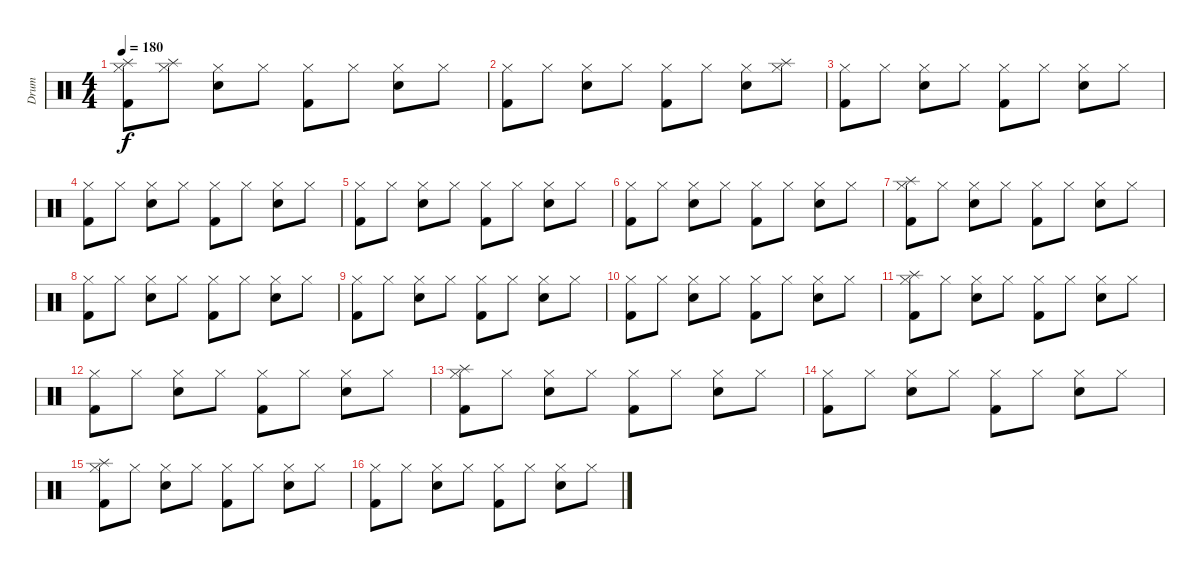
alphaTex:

\track ("Drum" "Drum") {instrument percussion}
\staff {score}
\articulation defaults
\ts (4 4)
\tempo 180
\clef neutral
\ks c
("Hi-Hat (closed)" "Kick (hit) 2" "Splash (hit)").8{dy f} ("Hi-Hat (closed)" "Splash (hit)").8 ("Hi-Hat (closed)" "Snare (hit) 2").8 "Hi-Hat (closed)".8 ("Hi-Hat (closed)" "Kick (hit) 2").8 "Hi-Hat (closed)".8 ("Hi-Hat (closed)" "Snare (hit) 2").8 "Hi-Hat (closed)".8 |
("Hi-Hat (closed)" "Kick (hit) 2").8 "Hi-Hat (closed)".8 ("Hi-Hat (closed)" "Snare (hit) 2").8 "Hi-Hat (closed)".8 ("Hi-Hat (closed)" "Kick (hit) 2").8 "Hi-Hat (closed)".8 ("Hi-Hat (closed)" "Snare (hit) 2").8 ("Hi-Hat (closed)" "Splash (hit)").8 |
("Hi-Hat (closed)" "Kick (hit) 2").8 "Hi-Hat (closed)".8 ("Hi-Hat (closed)" "Snare (hit) 2").8 "Hi-Hat (closed)".8 ("Hi-Hat (closed)" "Kick (hit) 2").8 "Hi-Hat (closed)".8 ("Hi-Hat (closed)" "Snare (hit) 2").8 "Hi-Hat (closed)".8 |
("Hi-Hat (closed)" "Kick (hit) 2").8 "Hi-Hat (closed)".8 ("Hi-Hat (closed)" "Snare (hit) 2").8 "Hi-Hat (closed)".8 ("Hi-Hat (closed)" "Kick (hit) 2").8 "Hi-Hat (closed)".8 ("Hi-Hat (closed)" "Snare (hit) 2").8 "Hi-Hat (closed)".8 |
("Hi-Hat (closed)" "Kick (hit) 2").8 "Hi-Hat (closed)".8 ("Hi-Hat (closed)" "Snare (hit) 2").8 "Hi-Hat (closed)".8 ("Hi-Hat (closed)" "Kick (hit) 2").8 "Hi-Hat (closed)".8 ("Hi-Hat (closed)" "Snare (hit) 2").8 "Hi-Hat (closed)".8 |
("Hi-Hat (closed)" "Kick (hit) 2").8 "Hi-Hat (closed)".8 ("Hi-Hat (closed)" "Snare (hit) 2").8 "Hi-Hat (closed)".8 ("Hi-Hat (closed)" "Kick (hit) 2").8 "Hi-Hat (closed)".8 ("Hi-Hat (closed)" "Snare (hit) 2").8 "Hi-Hat (closed)".8 |
("Hi-Hat (closed)" "Kick (hit) 2" "Splash (hit)").8 "Hi-Hat (closed)".8 ("Hi-Hat (closed)" "Snare (hit) 2").8 "Hi-Hat (closed)".8 ("Hi-Hat (closed)" "Kick (hit) 2").8 "Hi-Hat (closed)".8 ("Hi-Hat (closed)" "Snare (hit) 2").8 "Hi-Hat (closed)".8 |
("Hi-Hat (closed)" "Kick (hit) 2").8 "Hi-Hat (closed)".8 ("Hi-Hat (closed)" "Snare (hit) 2").8 "Hi-Hat (closed)".8 ("Hi-Hat (closed)" "Kick (hit) 2").8 "Hi-Hat (closed)".8 ("Hi-Hat (closed)" "Snare (hit) 2").8 "Hi-Hat (closed)".8 |
("Hi-Hat (closed)" "Kick (hit) 2").8 "Hi-Hat (closed)".8 ("Hi-Hat (closed)" "Snare (hit) 2").8 "Hi-Hat (closed)".8 ("Hi-Hat (closed)" "Kick (hit) 2").8 "Hi-Hat (closed)".8 ("Hi-Hat (closed)" "Snare (hit) 2").8 "Hi-Hat (closed)".8 |
("Hi-Hat (closed)" "Kick (hit) 2").8 "Hi-Hat (closed)".8 ("Hi-Hat (closed)" "Snare (hit) 2").8 "Hi-Hat (closed)".8 ("Hi-Hat (closed)" "Kick (hit) 2").8 "Hi-Hat (closed)".8 ("Hi-Hat (closed)" "Snare (hit) 2").8 "Hi-Hat (closed)".8 |
("Hi-Hat (closed)" "Kick (hit) 2" "Splash (hit)").8 "Hi-Hat (closed)".8 ("Hi-Hat (closed)" "Snare (hit) 2").8 "Hi-Hat (closed)".8 ("Hi-Hat (closed)" "Kick (hit) 2").8 "Hi-Hat (closed)".8 ("Hi-Hat (closed)" "Snare (hit) 2").8 "Hi-Hat (closed)".8 |
("Hi-Hat (closed)" "Kick (hit) 2").8 "Hi-Hat (closed)".8 ("Hi-Hat (closed)" "Snare (hit) 2").8 "Hi-Hat (closed)".8 ("Hi-Hat (closed)" "Kick (hit) 2").8 "Hi-Hat (closed)".8 ("Hi-Hat (closed)" "Snare (hit) 2").8 "Hi-Hat (closed)".8 |
("Hi-Hat (closed)" "Kick (hit) 2" "Splash (hit)").8 "Hi-Hat (closed)".8 ("Hi-Hat (closed)" "Snare (hit) 2").8 "Hi-Hat (closed)".8 ("Hi-Hat (closed)" "Kick (hit) 2").8 "Hi-Hat (closed)".8 ("Hi-Hat (closed)" "Snare (hit) 2").8 "Hi-Hat (closed)".8 |
("Hi-Hat (closed)" "Kick (hit) 2").8 "Hi-Hat (closed)".8 ("Hi-Hat (closed)" "Snare (hit) 2").8 "Hi-Hat (closed)".8 ("Hi-Hat (closed)" "Kick (hit) 2").8 "Hi-Hat (closed)".8 ("Hi-Hat (closed)" "Snare (hit) 2").8 "Hi-Hat (closed)".8 |
("Hi-Hat (closed)" "Kick (hit) 2" "Splash (hit)").8 "Hi-Hat (closed)".8 ("Hi-Hat (closed)" "Snare (hit) 2").8 "Hi-Hat (closed)".8 ("Hi-Hat (closed)" "Kick (hit) 2").8 "Hi-Hat (closed)".8 ("Hi-Hat (closed)" "Snare (hit) 2").8 "Hi-Hat (closed)".8 |
("Hi-Hat (closed)" "Kick (hit) 2").8 "Hi-Hat (closed)".8 ("Hi-Hat (closed)" "Snare (hit) 2").8 "Hi-Hat (closed)".8 ("Hi-Hat (closed)" "Kick (hit) 2").8 "Hi-Hat (closed)".8 ("Hi-Hat (closed)" "Snare (hit) 2").8 "Hi-Hat (closed)".8
